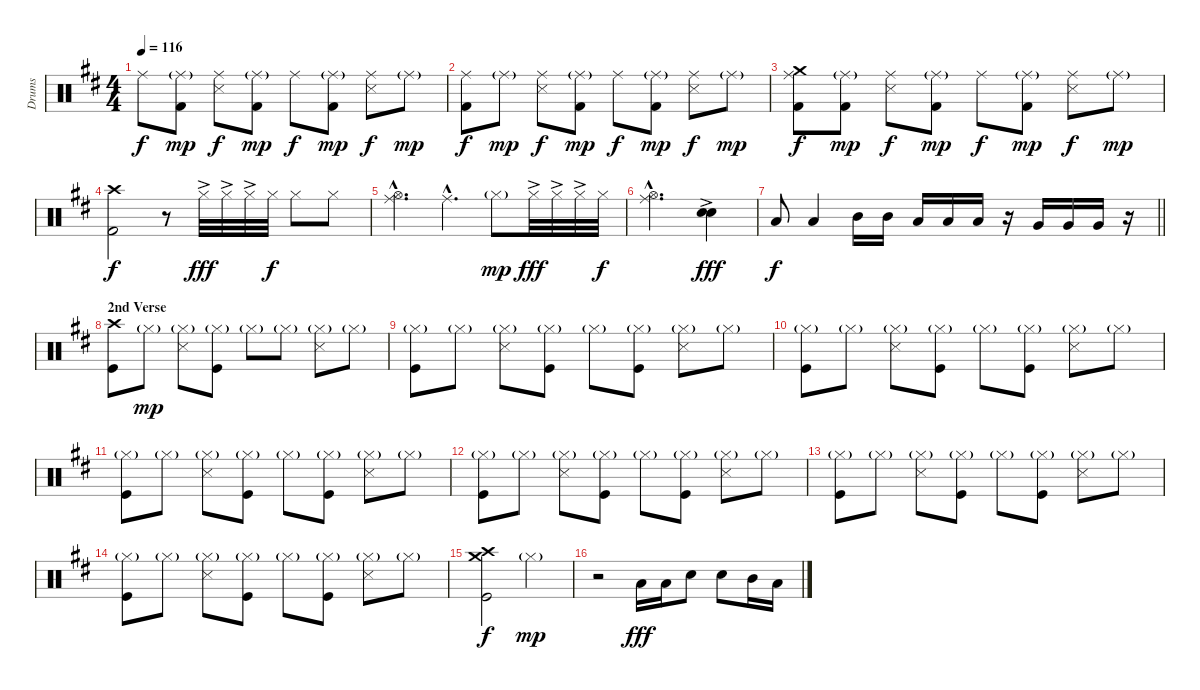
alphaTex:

\track ("Drums" "Drums") {instrument percussion}
\staff {score}
\articulation defaults
\ts (4 4)
\tempo 116
\clef neutral
\ks d "Ride (middle)".8{dy f}
("Ride (middle)"{g} "Kick (hit) 2").8{dy mp} ("Ride (middle)" "Snare (side stick) 3").8{dy f} ("Ride (middle)"{g} "Kick (hit) 2").8{dy mp} "Ride (middle)".8{dy f} ("Ride (middle)"{g} "Kick (hit) 2").8{dy mp} ("Ride (middle)" "Snare (side stick) 3").8{dy f} "Ride (middle)"{g}.8{dy mp} |
("Ride (middle)" "Kick (hit) 2").8{dy f} "Ride (middle)"{g}.8{dy mp} ("Ride (middle)" "Snare (side stick) 3").8{dy f} ("Ride (middle)"{g} "Kick (hit) 2").8{dy mp} "Ride (middle)".8{dy f} ("Ride (middle)"{g} "Kick (hit) 2").8{dy mp} ("Ride (middle)" "Snare (side stick) 3").8{dy f} "Ride (middle)"{g}.8{dy mp} |
("Crash medium (hit)" "Ride (middle)" "Kick (hit) 2").8{dy f} ("Ride (middle)"{g} "Kick (hit) 2").8{dy mp} ("Ride (middle)" "Snare (side stick) 3").8{dy f} ("Ride (middle)"{g} "Kick (hit) 2").8{dy mp} "Ride (middle)".8{dy f} ("Ride (middle)"{g} "Kick (hit) 2").8{dy mp} ("Ride (middle)" "Snare (side stick) 3").8{dy f} "Ride (middle)"{g}.8{dy mp} |
("Crash high (hit)" "Kick (hit) 2").2{dy f} r.8 "Hi-Hat (closed)"{ac}.32{dy fff} "Hi-Hat (closed)"{ac}.32 "Hi-Hat (closed)"{ac}.32 "Hi-Hat (closed)".32{dy f} "Hi-Hat (closed)".8 "Hi-Hat (closed)".8 |
("Hi-Hat (open)"{hac} "Ride (middle)"{hac}).4{d} "Ride (middle)"{hac}.4{d} "Hi-Hat (closed)"{g}.8{dy mp} "Hi-Hat (closed)"{ac}.32{dy fff} "Hi-Hat (closed)"{ac}.32 "Hi-Hat (closed)"{ac}.32 "Hi-Hat (closed)".32{dy f} |
("Hi-Hat (open)"{hac} "Ride (middle)"{hac}).2{d} ("Electric Snare (hit)" "Snare (hit) 2"{ac}).4{dy fff} |
\barLineRight lightlight "Low Tom (hit)".8{dy f} "Low Tom (hit)".4 "Mid Tom (hit)".16 "Mid Tom (hit)".16 "Low Tom (hit)".16 "Low Tom (hit)".16 "Low Tom (hit)".16
r.16 "Very Low Tom (hit)".16 "Very Low Tom (hit)".16 "Very Low Tom (hit)".16 r.16 |
\section ("" "2nd Verse")
("Crash high (hit)" "Kick (hit)").8 "Hi-Hat (closed)"{g}.8{dy mp} ("Hi-Hat (closed)"{g} "Snare (side stick) 3").8 ("Hi-Hat (closed)"{g} "Kick (hit)").8 "Hi-Hat (closed)"{g}.8 "Hi-Hat (closed)"{g}.8 ("Hi-Hat (closed)"{g} "Snare (side stick) 3").8 "Hi-Hat (closed)"{g}.8 |
("Hi-Hat (closed)"{g} "Kick (hit)").8 "Hi-Hat (closed)"{g}.8 ("Hi-Hat (closed)"{g} "Snare (side stick) 3").8 ("Hi-Hat (closed)"{g} "Kick (hit)").8 "Hi-Hat (closed)"{g}.8 ("Hi-Hat (closed)"{g} "Kick (hit)").8 ("Hi-Hat (closed)"{g} "Snare (side stick) 3").8 "Hi-Hat (closed)"{g}.8 |
("Hi-Hat (closed)"{g} "Kick (hit)").8 "Hi-Hat (closed)"{g}.8 ("Hi-Hat (closed)"{g} "Snare (side stick) 3").8 ("Hi-Hat (closed)"{g} "Kick (hit)").8 "Hi-Hat (closed)"{g}.8 ("Hi-Hat (closed)"{g} "Kick (hit)").8 ("Hi-Hat (closed)"{g} "Snare (side stick) 3").8 "Hi-Hat (closed)"{g}.8 |
("Hi-Hat (closed)"{g} "Kick (hit)").8 "Hi-Hat (closed)"{g}.8 ("Hi-Hat (closed)"{g} "Snare (side stick) 3").8 ("Hi-Hat (closed)"{g} "Kick (hit)").8 "Hi-Hat (closed)"{g}.8 ("Hi-Hat (closed)"{g} "Kick (hit)").8 ("Hi-Hat (closed)"{g} "Snare (side stick) 3").8 "Hi-Hat (closed)"{g}.8 |
("Hi-Hat (closed)"{g} "Kick (hit)").8 "Hi-Hat (closed)"{g}.8 ("Hi-Hat (closed)"{g} "Snare (side stick) 3").8 ("Hi-Hat (closed)"{g} "Kick (hit)").8 "Hi-Hat (closed)"{g}.8 ("Hi-Hat (closed)"{g} "Kick (hit)").8 ("Hi-Hat (closed)"{g} "Snare (side stick) 3").8 "Hi-Hat (closed)"{g}.8 |
("Hi-Hat (closed)"{g} "Kick (hit)").8 "Hi-Hat (closed)"{g}.8 ("Hi-Hat (closed)"{g} "Snare (side stick) 3").8 ("Hi-Hat (closed)"{g} "Kick (hit)").8 "Hi-Hat (closed)"{g}.8 ("Hi-Hat (closed)"{g} "Kick (hit)").8 ("Hi-Hat (closed)"{g} "Snare (side stick) 3").8 "Hi-Hat (closed)"{g}.8 |
("Hi-Hat (closed)"{g} "Kick (hit)").8 "Hi-Hat (closed)"{g}.8 ("Hi-Hat (closed)"{g} "Snare (side stick) 3").8 ("Hi-Hat (closed)"{g} "Kick (hit)").8 "Hi-Hat (closed)"{g}.8 ("Hi-Hat (closed)"{g} "Kick (hit)").8 ("Hi-Hat (closed)"{g} "Snare (side stick) 3").8 "Hi-Hat (closed)"{g}.8 |
("Crash medium (hit)" "Crash high (hit)" "Kick (hit)").2{dy f} "Hi-Hat (closed)"{g}.2{dy mp} |
r.2 "Low Tom (hit)".16{dy fff} "Low Tom (hit)".16 "Snare (hit) 2".8 "Snare (hit) 2".8 "Mid Tom (hit)".16 "Low Tom (hit)".16
